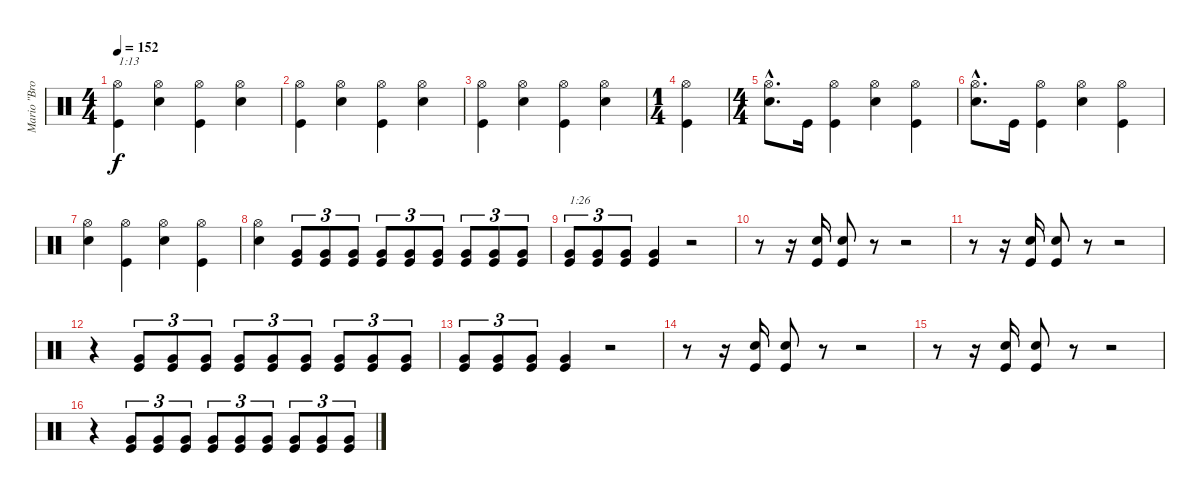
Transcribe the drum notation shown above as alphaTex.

\track ("Mario \"Bros\" Carvajal" "Mario \"Bro") {instrument percussion}
\staff {score}
\articulation defaults
\ts (4 4)
\tempo 152
\clef neutral
\ks c
("Kick (hit)" "Hi-Hat (open)").4{txt "1:13" dy f} ("Snare (hit) 2" "Hi-Hat (open)").4 ("Kick (hit)" "Hi-Hat (open)").4 ("Snare (hit) 2" "Hi-Hat (open)").4 |
("Kick (hit)" "Hi-Hat (open)").4 ("Snare (hit) 2" "Hi-Hat (open)").4 ("Kick (hit)" "Hi-Hat (open)").4 ("Snare (hit) 2" "Hi-Hat (open)").4 |
("Kick (hit)" "Hi-Hat (open)").4 ("Snare (hit) 2" "Hi-Hat (open)").4 ("Kick (hit)" "Hi-Hat (open)").4 ("Snare (hit) 2" "Hi-Hat (open)").4 |
\ts (1 4)
("Kick (hit)" "Hi-Hat (open)").4 |
\ts (4 4)
("Snare (hit) 2"{hac} "Hi-Hat (open)"{hac}).8{d} "Kick (hit)".16 ("Kick (hit)" "Hi-Hat (open)").4 ("Snare (hit) 2" "Hi-Hat (open)").4 ("Kick (hit)" "Hi-Hat (open)").4 |
("Snare (hit) 2"{hac} "Hi-Hat (open)"{hac}).8{d} "Kick (hit)".16 ("Kick (hit)" "Hi-Hat (open)").4 ("Snare (hit) 2" "Hi-Hat (open)").4 ("Kick (hit)" "Hi-Hat (open)").4 |
("Snare (hit) 2" "Hi-Hat (open)").4 ("Kick (hit)" "Hi-Hat (open)").4 ("Snare (hit) 2" "Hi-Hat (open)").4 ("Kick (hit)" "Hi-Hat (open)").4 |
("Snare (hit) 2" "Hi-Hat (open)").4 ("Kick (hit)" "Very Low Tom (hit)").8{tu (3 2)} ("Kick (hit)" "Very Low Tom (hit)").8{tu (3 2)} ("Kick (hit)" "Very Low Tom (hit)").8{tu (3 2)} ("Kick (hit)" "Very Low Tom (hit)").8{tu (3 2)} ("Kick (hit)" "Very Low Tom (hit)").8{tu (3 2)} ("Kick (hit)" "Very Low Tom (hit)").8{tu (3 2)} ("Kick (hit)" "Very Low Tom (hit)").8{tu (3 2)} ("Kick (hit)" "Very Low Tom (hit)").8{tu (3 2)} ("Kick (hit)" "Very Low Tom (hit)").8{tu (3 2)} |
("Kick (hit)" "Very Low Tom (hit)").8{tu (3 2) txt "1:26"} ("Kick (hit)" "Very Low Tom (hit)").8{tu (3 2)} ("Kick (hit)" "Very Low Tom (hit)").8{tu (3 2)} ("Kick (hit)" "Very Low Tom (hit)").4 r.2 |
r.8 r.16 ("Kick (hit)" "Snare (hit) 2").16 ("Kick (hit)" "Snare (hit) 2").8 r.8 r.2 |
r.8 r.16 ("Kick (hit)" "Snare (hit) 2").16 ("Kick (hit)" "Snare (hit) 2").8 r.8 r.2 |
r.4 ("Kick (hit)" "Very Low Tom (hit)").8{tu (3 2)} ("Kick (hit)" "Very Low Tom (hit)").8{tu (3 2)} ("Kick (hit)" "Very Low Tom (hit)").8{tu (3 2)} ("Kick (hit)" "Very Low Tom (hit)").8{tu (3 2)} ("Kick (hit)" "Very Low Tom (hit)").8{tu (3 2)} ("Kick (hit)" "Very Low Tom (hit)").8{tu (3 2)} ("Kick (hit)" "Very Low Tom (hit)").8{tu (3 2)} ("Kick (hit)" "Very Low Tom (hit)").8{tu (3 2)} ("Kick (hit)" "Very Low Tom (hit)").8{tu (3 2)} |
("Kick (hit)" "Very Low Tom (hit)").8{tu (3 2)} ("Kick (hit)" "Very Low Tom (hit)").8{tu (3 2)} ("Kick (hit)" "Very Low Tom (hit)").8{tu (3 2)} ("Kick (hit)" "Very Low Tom (hit)").4 r.2 |
r.8 r.16 ("Kick (hit)" "Snare (hit) 2").16 ("Kick (hit)" "Snare (hit) 2").8 r.8 r.2 |
r.8 r.16 ("Kick (hit)" "Snare (hit) 2").16 ("Kick (hit)" "Snare (hit) 2").8 r.8 r.2 |
r.4 ("Kick (hit)" "Very Low Tom (hit)").8{tu (3 2)} ("Kick (hit)" "Very Low Tom (hit)").8{tu (3 2)} ("Kick (hit)" "Very Low Tom (hit)").8{tu (3 2)} ("Kick (hit)" "Very Low Tom (hit)").8{tu (3 2)} ("Kick (hit)" "Very Low Tom (hit)").8{tu (3 2)} ("Kick (hit)" "Very Low Tom (hit)").8{tu (3 2)} ("Kick (hit)" "Very Low Tom (hit)").8{tu (3 2)} ("Kick (hit)" "Very Low Tom (hit)").8{tu (3 2)} ("Kick (hit)" "Very Low Tom (hit)").8{tu (3 2)}
